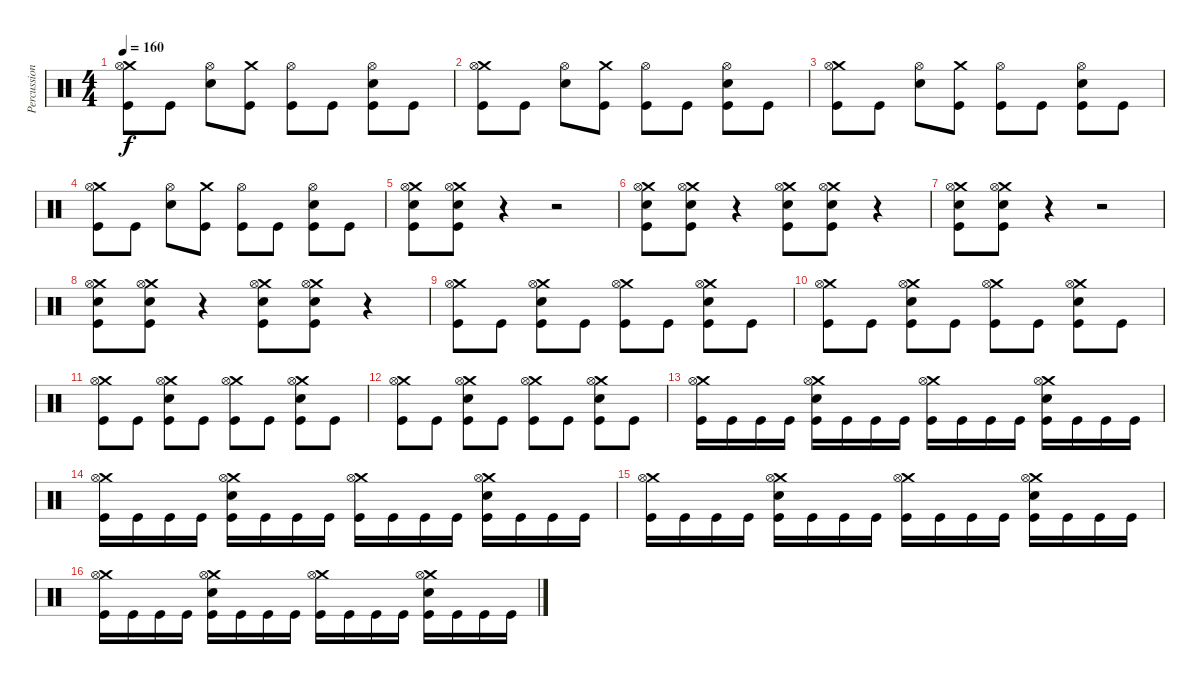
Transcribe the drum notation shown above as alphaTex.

\track ("Percussion" "Percussion") {instrument percussion}
\staff {score}
\articulation defaults
\ts (4 4)
\tempo 160
\clef neutral
\ks c
("Crash medium (hit)" "Hi-Hat (open)" "Kick (hit)").8{dy f} "Kick (hit)".8 ("Snare (hit) 2" "Hi-Hat (open)").8 ("Crash medium (hit)" "Kick (hit)").8 ("Hi-Hat (open)" "Kick (hit)").8 "Kick (hit)".8 ("Snare (hit) 2" "Hi-Hat (open)" "Kick (hit)").8 "Kick (hit)".8 |
("Crash medium (hit)" "Hi-Hat (open)" "Kick (hit)").8 "Kick (hit)".8 ("Snare (hit) 2" "Hi-Hat (open)").8 ("Crash medium (hit)" "Kick (hit)").8 ("Hi-Hat (open)" "Kick (hit)").8 "Kick (hit)".8 ("Snare (hit) 2" "Hi-Hat (open)" "Kick (hit)").8 "Kick (hit)".8 |
("Crash medium (hit)" "Hi-Hat (open)" "Kick (hit)").8 "Kick (hit)".8 ("Snare (hit) 2" "Hi-Hat (open)").8 ("Crash medium (hit)" "Kick (hit)").8 ("Hi-Hat (open)" "Kick (hit)").8 "Kick (hit)".8 ("Snare (hit) 2" "Hi-Hat (open)" "Kick (hit)").8 "Kick (hit)".8 |
("Crash medium (hit)" "Hi-Hat (open)" "Kick (hit)").8 "Kick (hit)".8 ("Snare (hit) 2" "Hi-Hat (open)").8 ("Crash medium (hit)" "Kick (hit)").8 ("Hi-Hat (open)" "Kick (hit)").8 "Kick (hit)".8 ("Snare (hit) 2" "Hi-Hat (open)" "Kick (hit)").8 "Kick (hit)".8 |
("Crash medium (hit)" "Snare (hit) 2" "Hi-Hat (open)" "Kick (hit)").8 ("Crash medium (hit)" "Snare (hit) 2" "Hi-Hat (open)" "Kick (hit)").8 r.4 r.2 |
("Crash medium (hit)" "Snare (hit) 2" "Hi-Hat (open)" "Kick (hit)").8 ("Crash medium (hit)" "Snare (hit) 2" "Hi-Hat (open)" "Kick (hit)").8 r.4 ("Crash medium (hit)" "Snare (hit) 2" "Hi-Hat (open)" "Kick (hit)").8 ("Crash medium (hit)" "Snare (hit) 2" "Hi-Hat (open)" "Kick (hit)").8 r.4 |
("Crash medium (hit)" "Snare (hit) 2" "Hi-Hat (open)" "Kick (hit)").8 ("Crash medium (hit)" "Snare (hit) 2" "Hi-Hat (open)" "Kick (hit)").8 r.4 r.2 |
("Crash medium (hit)" "Snare (hit) 2" "Hi-Hat (open)" "Kick (hit)").8 ("Crash medium (hit)" "Snare (hit) 2" "Hi-Hat (open)" "Kick (hit)").8 r.4 ("Crash medium (hit)" "Snare (hit) 2" "Hi-Hat (open)" "Kick (hit)").8 ("Crash medium (hit)" "Snare (hit) 2" "Hi-Hat (open)" "Kick (hit)").8 r.4 |
("Crash medium (hit)" "Hi-Hat (open)" "Kick (hit)").8 "Kick (hit)".8 ("Crash medium (hit)" "Snare (hit) 2" "Hi-Hat (open)" "Kick (hit)").8 "Kick (hit)".8 ("Crash medium (hit)" "Hi-Hat (open)" "Kick (hit)").8 "Kick (hit)".8 ("Crash medium (hit)" "Snare (hit) 2" "Hi-Hat (open)" "Kick (hit)").8 "Kick (hit)".8 |
("Crash medium (hit)" "Hi-Hat (open)" "Kick (hit)").8 "Kick (hit)".8 ("Crash medium (hit)" "Snare (hit) 2" "Hi-Hat (open)" "Kick (hit)").8 "Kick (hit)".8 ("Crash medium (hit)" "Hi-Hat (open)" "Kick (hit)").8 "Kick (hit)".8 ("Crash medium (hit)" "Snare (hit) 2" "Hi-Hat (open)" "Kick (hit)").8 "Kick (hit)".8 |
("Crash medium (hit)" "Hi-Hat (open)" "Kick (hit)").8 "Kick (hit)".8 ("Crash medium (hit)" "Snare (hit) 2" "Hi-Hat (open)" "Kick (hit)").8 "Kick (hit)".8 ("Crash medium (hit)" "Hi-Hat (open)" "Kick (hit)").8 "Kick (hit)".8 ("Crash medium (hit)" "Snare (hit) 2" "Hi-Hat (open)" "Kick (hit)").8 "Kick (hit)".8 |
("Crash medium (hit)" "Hi-Hat (open)" "Kick (hit)").8 "Kick (hit)".8 ("Crash medium (hit)" "Snare (hit) 2" "Hi-Hat (open)" "Kick (hit)").8 "Kick (hit)".8 ("Crash medium (hit)" "Hi-Hat (open)" "Kick (hit)").8 "Kick (hit)".8 ("Crash medium (hit)" "Snare (hit) 2" "Hi-Hat (open)" "Kick (hit)").8 "Kick (hit)".8 |
("Crash medium (hit)" "Hi-Hat (open)" "Kick (hit)").16 "Kick (hit)".16 "Kick (hit)".16 "Kick (hit)".16 ("Crash medium (hit)" "Snare (hit) 2" "Hi-Hat (open)" "Kick (hit)").16 "Kick (hit)".16 "Kick (hit)".16 "Kick (hit)".16 ("Crash medium (hit)" "Hi-Hat (open)" "Kick (hit)").16 "Kick (hit)".16 "Kick (hit)".16 "Kick (hit)".16 ("Crash medium (hit)" "Snare (hit) 2" "Hi-Hat (open)" "Kick (hit)").16 "Kick (hit)".16 "Kick (hit)".16 "Kick (hit)".16 |
("Crash medium (hit)" "Hi-Hat (open)" "Kick (hit)").16 "Kick (hit)".16 "Kick (hit)".16 "Kick (hit)".16 ("Crash medium (hit)" "Snare (hit) 2" "Hi-Hat (open)" "Kick (hit)").16 "Kick (hit)".16 "Kick (hit)".16 "Kick (hit)".16 ("Crash medium (hit)" "Hi-Hat (open)" "Kick (hit)").16 "Kick (hit)".16 "Kick (hit)".16 "Kick (hit)".16 ("Crash medium (hit)" "Snare (hit) 2" "Hi-Hat (open)" "Kick (hit)").16 "Kick (hit)".16 "Kick (hit)".16 "Kick (hit)".16 |
("Crash medium (hit)" "Hi-Hat (open)" "Kick (hit)").16 "Kick (hit)".16 "Kick (hit)".16 "Kick (hit)".16 ("Crash medium (hit)" "Snare (hit) 2" "Hi-Hat (open)" "Kick (hit)").16 "Kick (hit)".16 "Kick (hit)".16 "Kick (hit)".16 ("Crash medium (hit)" "Hi-Hat (open)" "Kick (hit)").16 "Kick (hit)".16 "Kick (hit)".16 "Kick (hit)".16 ("Crash medium (hit)" "Snare (hit) 2" "Hi-Hat (open)" "Kick (hit)").16 "Kick (hit)".16 "Kick (hit)".16 "Kick (hit)".16 |
("Crash medium (hit)" "Hi-Hat (open)" "Kick (hit)").16 "Kick (hit)".16 "Kick (hit)".16 "Kick (hit)".16 ("Crash medium (hit)" "Snare (hit) 2" "Hi-Hat (open)" "Kick (hit)").16 "Kick (hit)".16 "Kick (hit)".16 "Kick (hit)".16 ("Crash medium (hit)" "Hi-Hat (open)" "Kick (hit)").16 "Kick (hit)".16 "Kick (hit)".16 "Kick (hit)".16 ("Crash medium (hit)" "Snare (hit) 2" "Hi-Hat (open)" "Kick (hit)").16 "Kick (hit)".16 "Kick (hit)".16 "Kick (hit)".16
